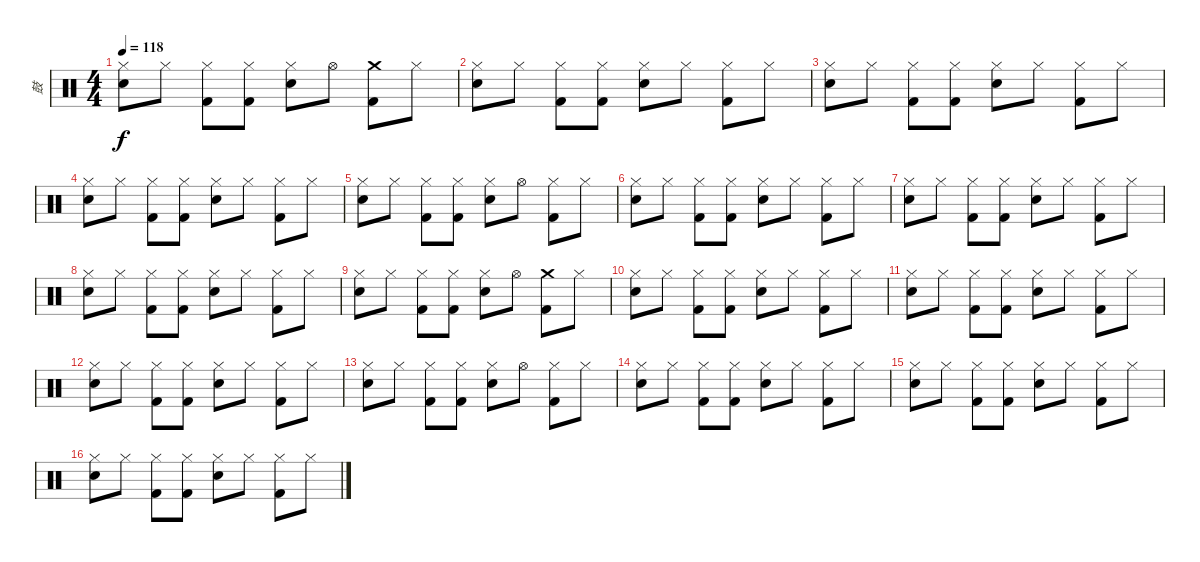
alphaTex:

\track ("鼓" "鼓") {instrument percussion}
\staff {score}
\articulation defaults
\ts (4 4)
\tempo 118
\clef neutral
\ks c
("Hi-Hat (closed)" "Electric Snare (hit)").8{dy f} "Hi-Hat (closed)".8 ("Hi-Hat (closed)" "Kick (hit) 2").8 ("Hi-Hat (closed)" "Kick (hit) 2").8 ("Hi-Hat (closed)" "Electric Snare (hit)").8 "Hi-Hat (open)".8 ("Crash medium (hit)" "Kick (hit) 2").8 "Hi-Hat (closed)".8 |
("Hi-Hat (closed)" "Electric Snare (hit)").8 "Hi-Hat (closed)".8 ("Hi-Hat (closed)" "Kick (hit) 2").8 ("Hi-Hat (closed)" "Kick (hit) 2").8 ("Hi-Hat (closed)" "Electric Snare (hit)").8 "Hi-Hat (closed)".8 ("Hi-Hat (closed)" "Kick (hit) 2").8 "Hi-Hat (closed)".8 |
("Hi-Hat (closed)" "Electric Snare (hit)").8 "Hi-Hat (closed)".8 ("Hi-Hat (closed)" "Kick (hit) 2").8 ("Hi-Hat (closed)" "Kick (hit) 2").8 ("Hi-Hat (closed)" "Electric Snare (hit)").8 "Hi-Hat (closed)".8 ("Hi-Hat (closed)" "Kick (hit) 2").8 "Hi-Hat (closed)".8 |
("Hi-Hat (closed)" "Electric Snare (hit)").8 "Hi-Hat (closed)".8 ("Hi-Hat (closed)" "Kick (hit) 2").8 ("Hi-Hat (closed)" "Kick (hit) 2").8 ("Hi-Hat (closed)" "Electric Snare (hit)").8 "Hi-Hat (closed)".8 ("Hi-Hat (closed)" "Kick (hit) 2").8 "Hi-Hat (closed)".8 |
("Hi-Hat (closed)" "Electric Snare (hit)").8 "Hi-Hat (closed)".8 ("Hi-Hat (closed)" "Kick (hit) 2").8 ("Hi-Hat (closed)" "Kick (hit) 2").8 ("Hi-Hat (closed)" "Electric Snare (hit)").8 "Hi-Hat (open)".8 ("Hi-Hat (closed)" "Kick (hit) 2").8 "Hi-Hat (closed)".8 |
("Hi-Hat (closed)" "Electric Snare (hit)").8 "Hi-Hat (closed)".8 ("Hi-Hat (closed)" "Kick (hit) 2").8 ("Hi-Hat (closed)" "Kick (hit) 2").8 ("Hi-Hat (closed)" "Electric Snare (hit)").8 "Hi-Hat (closed)".8 ("Hi-Hat (closed)" "Kick (hit) 2").8 "Hi-Hat (closed)".8 |
("Hi-Hat (closed)" "Electric Snare (hit)").8 "Hi-Hat (closed)".8 ("Hi-Hat (closed)" "Kick (hit) 2").8 ("Hi-Hat (closed)" "Kick (hit) 2").8 ("Hi-Hat (closed)" "Electric Snare (hit)").8 "Hi-Hat (closed)".8 ("Hi-Hat (closed)" "Kick (hit) 2").8 "Hi-Hat (closed)".8 |
("Hi-Hat (closed)" "Electric Snare (hit)").8 "Hi-Hat (closed)".8 ("Hi-Hat (closed)" "Kick (hit) 2").8 ("Hi-Hat (closed)" "Kick (hit) 2").8 ("Hi-Hat (closed)" "Electric Snare (hit)").8 "Hi-Hat (closed)".8 ("Hi-Hat (closed)" "Kick (hit) 2").8 "Hi-Hat (closed)".8 |
("Hi-Hat (closed)" "Electric Snare (hit)").8 "Hi-Hat (closed)".8 ("Hi-Hat (closed)" "Kick (hit) 2").8 ("Hi-Hat (closed)" "Kick (hit) 2").8 ("Hi-Hat (closed)" "Electric Snare (hit)").8 "Hi-Hat (open)".8 ("Crash medium (hit)" "Kick (hit) 2").8 "Hi-Hat (closed)".8 |
("Hi-Hat (closed)" "Electric Snare (hit)").8 "Hi-Hat (closed)".8 ("Hi-Hat (closed)" "Kick (hit) 2").8 ("Hi-Hat (closed)" "Kick (hit) 2").8 ("Hi-Hat (closed)" "Electric Snare (hit)").8 "Hi-Hat (closed)".8 ("Hi-Hat (closed)" "Kick (hit) 2").8 "Hi-Hat (closed)".8 |
("Hi-Hat (closed)" "Electric Snare (hit)").8 "Hi-Hat (closed)".8 ("Hi-Hat (closed)" "Kick (hit) 2").8 ("Hi-Hat (closed)" "Kick (hit) 2").8 ("Hi-Hat (closed)" "Electric Snare (hit)").8 "Hi-Hat (closed)".8 ("Hi-Hat (closed)" "Kick (hit) 2").8 "Hi-Hat (closed)".8 |
("Hi-Hat (closed)" "Electric Snare (hit)").8 "Hi-Hat (closed)".8 ("Hi-Hat (closed)" "Kick (hit) 2").8 ("Hi-Hat (closed)" "Kick (hit) 2").8 ("Hi-Hat (closed)" "Electric Snare (hit)").8 "Hi-Hat (closed)".8 ("Hi-Hat (closed)" "Kick (hit) 2").8 "Hi-Hat (closed)".8 |
("Hi-Hat (closed)" "Electric Snare (hit)").8 "Hi-Hat (closed)".8 ("Hi-Hat (closed)" "Kick (hit) 2").8 ("Hi-Hat (closed)" "Kick (hit) 2").8 ("Hi-Hat (closed)" "Electric Snare (hit)").8 "Hi-Hat (open)".8 ("Hi-Hat (closed)" "Kick (hit) 2").8 "Hi-Hat (closed)".8 |
("Hi-Hat (closed)" "Electric Snare (hit)").8 "Hi-Hat (closed)".8 ("Hi-Hat (closed)" "Kick (hit) 2").8 ("Hi-Hat (closed)" "Kick (hit) 2").8 ("Hi-Hat (closed)" "Electric Snare (hit)").8 "Hi-Hat (closed)".8 ("Hi-Hat (closed)" "Kick (hit) 2").8 "Hi-Hat (closed)".8 |
("Hi-Hat (closed)" "Electric Snare (hit)").8 "Hi-Hat (closed)".8 ("Hi-Hat (closed)" "Kick (hit) 2").8 ("Hi-Hat (closed)" "Kick (hit) 2").8 ("Hi-Hat (closed)" "Electric Snare (hit)").8 "Hi-Hat (closed)".8 ("Hi-Hat (closed)" "Kick (hit) 2").8 "Hi-Hat (closed)".8 |
("Hi-Hat (closed)" "Electric Snare (hit)").8 "Hi-Hat (closed)".8 ("Hi-Hat (closed)" "Kick (hit) 2").8 ("Hi-Hat (closed)" "Kick (hit) 2").8 ("Hi-Hat (closed)" "Electric Snare (hit)").8 "Hi-Hat (closed)".8 ("Hi-Hat (closed)" "Kick (hit) 2").8 "Hi-Hat (closed)".8
